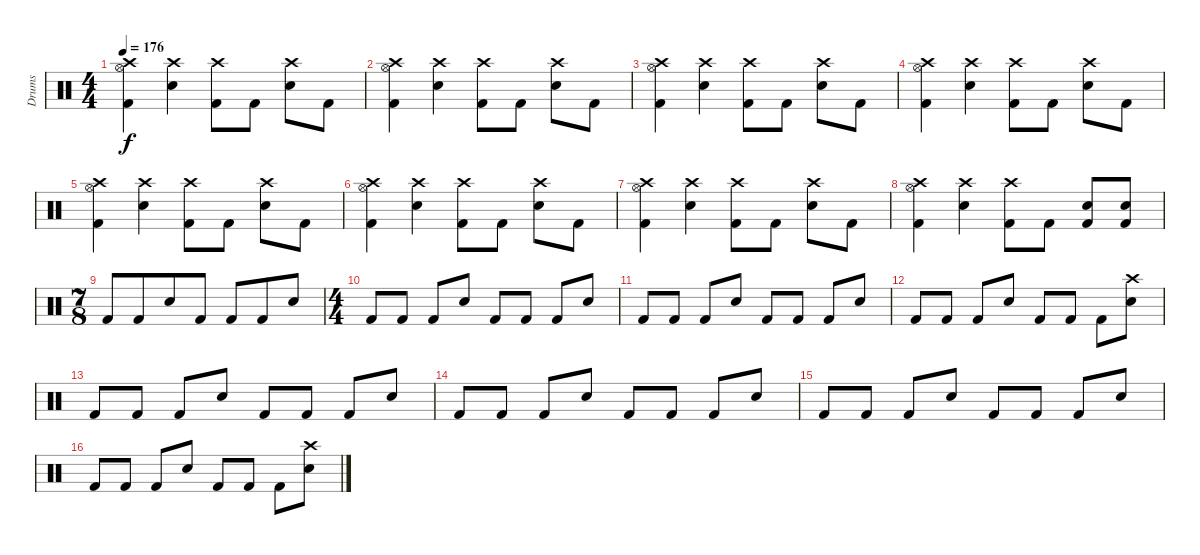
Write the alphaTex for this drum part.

\track ("Drums" "Drums") {instrument percussion}
\staff {score}
\articulation defaults
\ts (4 4)
\tempo 176
\clef neutral
\ks c
("Kick (hit) 2" "Hi-Hat (open)" "Crash high (hit)").4{dy f} ("Snare (hit) 2" "Crash high (hit)").4 ("Kick (hit) 2" "Crash high (hit)").8 "Kick (hit) 2".8 ("Snare (hit) 2" "Crash high (hit)").8 "Kick (hit) 2".8 |
("Kick (hit) 2" "Hi-Hat (open)" "Crash high (hit)").4 ("Snare (hit) 2" "Crash high (hit)").4 ("Kick (hit) 2" "Crash high (hit)").8 "Kick (hit) 2".8 ("Snare (hit) 2" "Crash high (hit)").8 "Kick (hit) 2".8 |
("Kick (hit) 2" "Hi-Hat (open)" "Crash high (hit)").4 ("Snare (hit) 2" "Crash high (hit)").4 ("Kick (hit) 2" "Crash high (hit)").8 "Kick (hit) 2".8 ("Snare (hit) 2" "Crash high (hit)").8 "Kick (hit) 2".8 |
("Kick (hit) 2" "Hi-Hat (open)" "Crash high (hit)").4 ("Snare (hit) 2" "Crash high (hit)").4 ("Kick (hit) 2" "Crash high (hit)").8 "Kick (hit) 2".8 ("Snare (hit) 2" "Crash high (hit)").8 "Kick (hit) 2".8 |
("Kick (hit) 2" "Hi-Hat (open)" "Crash high (hit)").4 ("Snare (hit) 2" "Crash high (hit)").4 ("Kick (hit) 2" "Crash high (hit)").8 "Kick (hit) 2".8 ("Snare (hit) 2" "Crash high (hit)").8 "Kick (hit) 2".8 |
("Kick (hit) 2" "Hi-Hat (open)" "Crash high (hit)").4 ("Snare (hit) 2" "Crash high (hit)").4 ("Kick (hit) 2" "Crash high (hit)").8 "Kick (hit) 2".8 ("Snare (hit) 2" "Crash high (hit)").8 "Kick (hit) 2".8 |
("Kick (hit) 2" "Hi-Hat (open)" "Crash high (hit)").4 ("Snare (hit) 2" "Crash high (hit)").4 ("Kick (hit) 2" "Crash high (hit)").8 "Kick (hit) 2".8 ("Snare (hit) 2" "Crash high (hit)").8 "Kick (hit) 2".8 |
("Kick (hit) 2" "Hi-Hat (open)" "Crash high (hit)").4 ("Snare (hit) 2" "Crash high (hit)").4 ("Kick (hit) 2" "Crash high (hit)").8 "Kick (hit) 2".8 ("Kick (hit) 2" "Snare (hit) 2").8 ("Kick (hit) 2" "Snare (hit) 2").8 |
\ts (7 8)
"Kick (hit) 2".8 "Kick (hit) 2".8 "Snare (hit) 2".8 "Kick (hit) 2".8 "Kick (hit) 2".8 "Kick (hit) 2".8 "Snare (hit) 2".8 |
\ts (4 4)
"Kick (hit) 2".8 "Kick (hit) 2".8 "Kick (hit) 2".8 "Snare (hit) 2".8 "Kick (hit) 2".8 "Kick (hit) 2".8 "Kick (hit) 2".8 "Snare (hit) 2".8 |
"Kick (hit) 2".8 "Kick (hit) 2".8 "Kick (hit) 2".8 "Snare (hit) 2".8 "Kick (hit) 2".8 "Kick (hit) 2".8 "Kick (hit) 2".8 "Snare (hit) 2".8 |
"Kick (hit) 2".8 "Kick (hit) 2".8 "Kick (hit) 2".8 "Snare (hit) 2".8 "Kick (hit) 2".8 "Kick (hit) 2".8 "Kick (hit) 2".8 ("Crash high (hit)" "Snare (hit) 2").8 |
"Kick (hit) 2".8 "Kick (hit) 2".8 "Kick (hit) 2".8 "Snare (hit) 2".8 "Kick (hit) 2".8 "Kick (hit) 2".8 "Kick (hit) 2".8 "Snare (hit) 2".8 |
"Kick (hit) 2".8 "Kick (hit) 2".8 "Kick (hit) 2".8 "Snare (hit) 2".8 "Kick (hit) 2".8 "Kick (hit) 2".8 "Kick (hit) 2".8 "Snare (hit) 2".8 |
"Kick (hit) 2".8 "Kick (hit) 2".8 "Kick (hit) 2".8 "Snare (hit) 2".8 "Kick (hit) 2".8 "Kick (hit) 2".8 "Kick (hit) 2".8 "Snare (hit) 2".8 |
"Kick (hit) 2".8 "Kick (hit) 2".8 "Kick (hit) 2".8 "Snare (hit) 2".8 "Kick (hit) 2".8 "Kick (hit) 2".8 "Kick (hit) 2".8 ("Crash high (hit)" "Snare (hit) 2").8
